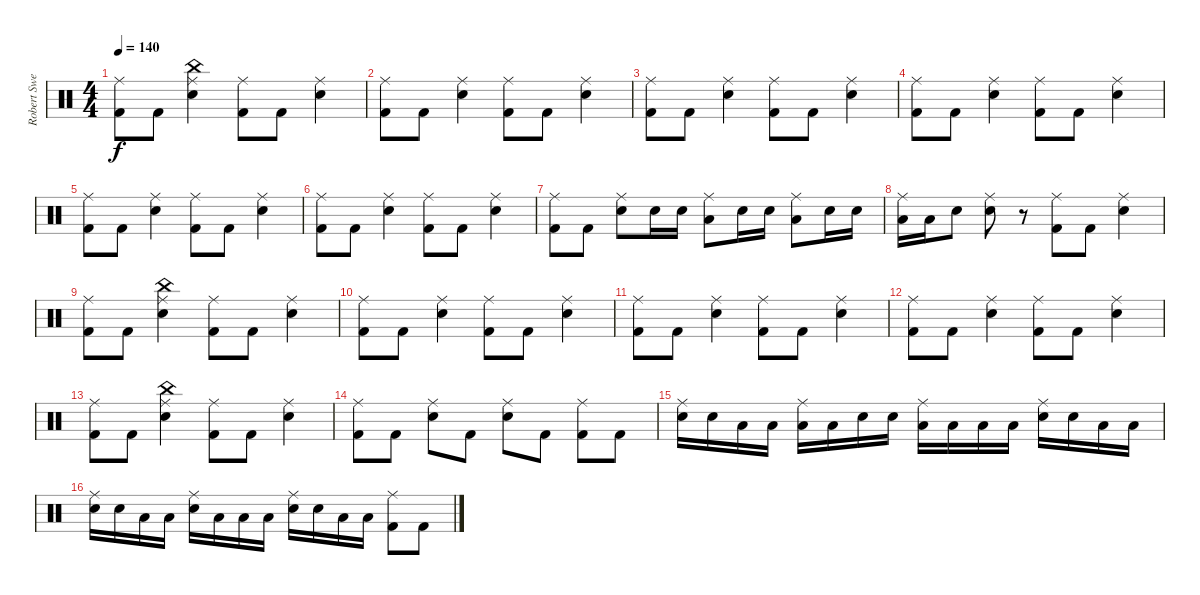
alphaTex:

\track ("Robert Sweet" "Robert Swe") {instrument percussion}
\staff {score}
\articulation defaults
\ts (4 4)
\tempo 140
\clef neutral
\ks c
("Kick (hit) 2" "Ride (middle)").8{dy f} "Kick (hit) 2".8 ("Electric Snare (hit)" "China (hit)" "Ride (middle)").4 ("Kick (hit) 2" "Ride (middle)").8 "Kick (hit) 2".8 ("Electric Snare (hit)" "Ride (middle)").4 |
("Kick (hit) 2" "Ride (middle)").8 "Kick (hit) 2".8 ("Electric Snare (hit)" "Ride (middle)").4 ("Kick (hit) 2" "Ride (middle)").8 "Kick (hit) 2".8 ("Electric Snare (hit)" "Ride (middle)").4 |
("Kick (hit) 2" "Ride (middle)").8 "Kick (hit) 2".8 ("Electric Snare (hit)" "Ride (middle)").4 ("Kick (hit) 2" "Ride (middle)").8 "Kick (hit) 2".8 ("Electric Snare (hit)" "Ride (middle)").4 |
("Kick (hit) 2" "Ride (middle)").8 "Kick (hit) 2".8 ("Electric Snare (hit)" "Ride (middle)").4 ("Kick (hit) 2" "Ride (middle)").8 "Kick (hit) 2".8 ("Electric Snare (hit)" "Ride (middle)").4 |
("Kick (hit) 2" "Ride (middle)").8 "Kick (hit) 2".8 ("Electric Snare (hit)" "Ride (middle)").4 ("Kick (hit) 2" "Ride (middle)").8 "Kick (hit) 2".8 ("Electric Snare (hit)" "Ride (middle)").4 |
("Kick (hit) 2" "Ride (middle)").8 "Kick (hit) 2".8 ("Electric Snare (hit)" "Ride (middle)").4 ("Kick (hit) 2" "Ride (middle)").8 "Kick (hit) 2".8 ("Electric Snare (hit)" "Ride (middle)").4 |
("Kick (hit) 2" "Ride (middle)").8 "Kick (hit) 2".8 ("Electric Snare (hit)" "Ride (middle)").8 "Electric Snare (hit)".16 "Electric Snare (hit)".16 ("Low Floor Tom (hit)" "Ride (middle)").8 "Electric Snare (hit)".16 "Electric Snare (hit)".16 ("Low Floor Tom (hit)" "Ride (middle)").8 "Electric Snare (hit)".16 "Electric Snare (hit)".16 |
("Low Floor Tom (hit)" "Ride (middle)").16 "Low Floor Tom (hit)".16 "Electric Snare (hit)".8 ("Electric Snare (hit)" "Ride (middle)").8 r.8 ("Kick (hit) 2" "Ride (middle)").8 "Kick (hit) 2".8 ("Electric Snare (hit)" "Ride (middle)").4 |
("Kick (hit) 2" "Ride (middle)").8 "Kick (hit) 2".8 ("Electric Snare (hit)" "China (hit)" "Ride (middle)").4 ("Kick (hit) 2" "Ride (middle)").8 "Kick (hit) 2".8 ("Electric Snare (hit)" "Ride (middle)").4 |
("Kick (hit) 2" "Ride (middle)").8 "Kick (hit) 2".8 ("Electric Snare (hit)" "Ride (middle)").4 ("Kick (hit) 2" "Ride (middle)").8 "Kick (hit) 2".8 ("Electric Snare (hit)" "Ride (middle)").4 |
("Kick (hit) 2" "Ride (middle)").8 "Kick (hit) 2".8 ("Electric Snare (hit)" "Ride (middle)").4 ("Kick (hit) 2" "Ride (middle)").8 "Kick (hit) 2".8 ("Electric Snare (hit)" "Ride (middle)").4 |
("Kick (hit) 2" "Ride (middle)").8 "Kick (hit) 2".8 ("Electric Snare (hit)" "Ride (middle)").4 ("Kick (hit) 2" "Ride (middle)").8 "Kick (hit) 2".8 ("Electric Snare (hit)" "Ride (middle)").4 |
("Kick (hit) 2" "Ride (middle)").8 "Kick (hit) 2".8 ("Electric Snare (hit)" "China (hit)" "Ride (middle)").4 ("Kick (hit) 2" "Ride (middle)").8 "Kick (hit) 2".8 ("Electric Snare (hit)" "Ride (middle)").4 |
("Kick (hit) 2" "Ride (middle)").8 "Kick (hit) 2".8 ("Electric Snare (hit)" "Ride (middle)").8 "Kick (hit) 2".8 ("Electric Snare (hit)" "Ride (middle)").8 "Kick (hit) 2".8 ("Kick (hit) 2" "Ride (middle)").8 "Kick (hit) 2".8 |
("Electric Snare (hit)" "Ride (middle)").16 "Electric Snare (hit)".16 "Low Floor Tom (hit)".16 "Low Floor Tom (hit)".16 ("Low Floor Tom (hit)" "Ride (middle)").16 "Low Floor Tom (hit)".16 "Electric Snare (hit)".16 "Electric Snare (hit)".16 ("Low Floor Tom (hit)" "Ride (middle)").16 "Low Floor Tom (hit)".16 "Low Floor Tom (hit)".16 "Low Floor Tom (hit)".16 ("Electric Snare (hit)" "Ride (middle)").16 "Electric Snare (hit)".16 "Low Floor Tom (hit)".16 "Low Floor Tom (hit)".16 |
("Electric Snare (hit)" "Ride (middle)").16 "Electric Snare (hit)".16 "Low Floor Tom (hit)".16 "Low Floor Tom (hit)".16 ("Electric Snare (hit)" "Ride (middle)").16 "Low Floor Tom (hit)".16 "Low Floor Tom (hit)".16 "Low Floor Tom (hit)".16 ("Electric Snare (hit)" "Ride (middle)").16 "Electric Snare (hit)".16 "Low Floor Tom (hit)".16 "Low Floor Tom (hit)".16 ("Kick (hit) 2" "Ride (middle)").8 "Kick (hit) 2".8
